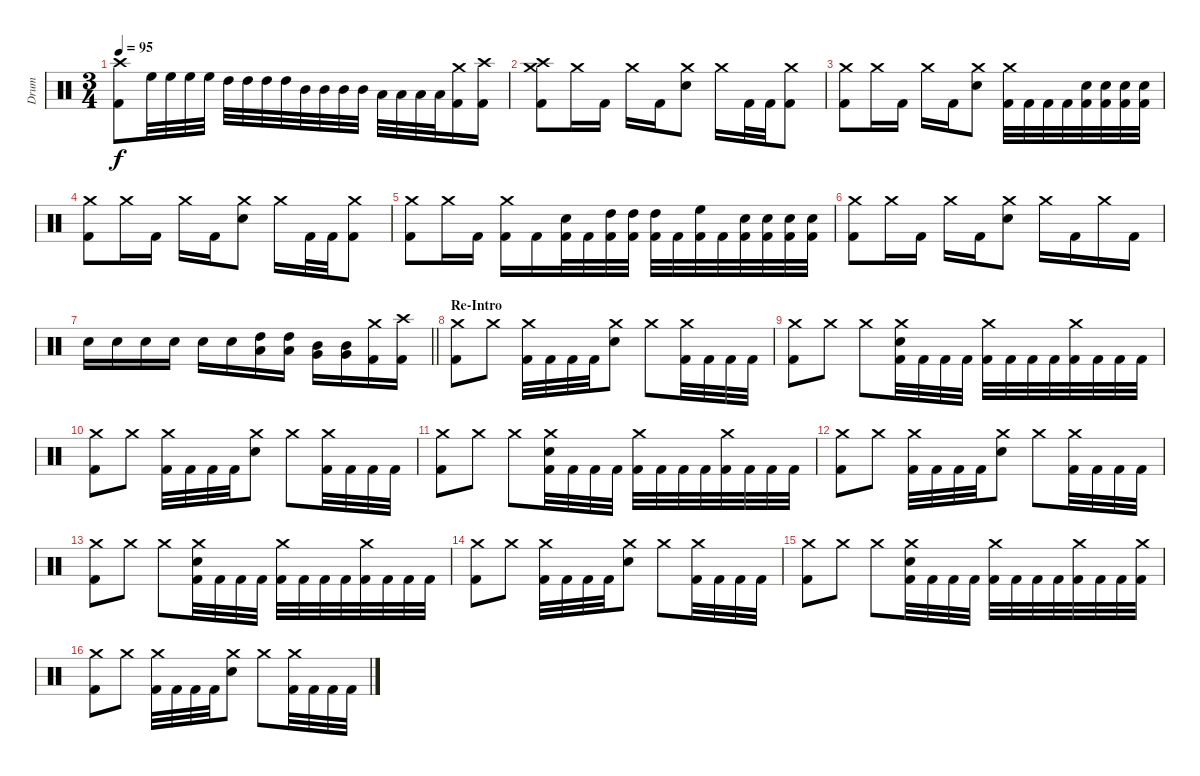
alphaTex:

\track ("Drum" "Drum") {instrument percussion}
\staff {score}
\articulation defaults
\ts (3 4)
\tempo 95
\clef neutral
\ks c
("Crash high (hit)" "Kick (hit) 2").8{dy f} "High Floor Tom (hit)".32 "High Floor Tom (hit)".32 "High Floor Tom (hit)".32 "High Floor Tom (hit)".32 "High Tom (hit)".32 "High Tom (hit)".32 "High Tom (hit)".32 "High Tom (hit)".32 "Mid Tom (hit)".32 "Mid Tom (hit)".32 "Mid Tom (hit)".32 "Mid Tom (hit)".32 "Low Tom (hit)".32 "Low Tom (hit)".32 "Low Tom (hit)".32 "Low Tom (hit)".32 ("Crash medium (hit)" "Kick (hit) 2").16 ("Crash high (hit)" "Kick (hit) 2").16 |
("Crash medium (hit)" "Crash high (hit)" "Kick (hit) 2").8 "Crash medium (hit)".16 "Kick (hit) 2".16 "Crash medium (hit)".16 "Kick (hit) 2".16 ("Crash medium (hit)" "Electric Snare (hit)").8 "Crash medium (hit)".16 "Kick (hit) 2".32 "Kick (hit) 2".32 ("Crash medium (hit)" "Kick (hit) 2").8 |
("Crash medium (hit)" "Kick (hit) 2").8 "Crash medium (hit)".16 "Kick (hit) 2".16 "Crash medium (hit)".16 "Kick (hit) 2".16 ("Crash medium (hit)" "Electric Snare (hit)").8 ("Crash medium (hit)" "Kick (hit) 2").32 "Kick (hit) 2".32 "Kick (hit) 2".32 "Kick (hit) 2".32 ("Electric Snare (hit)" "Kick (hit) 2").32 ("Electric Snare (hit)" "Kick (hit) 2").32 ("Electric Snare (hit)" "Kick (hit) 2").32 ("Electric Snare (hit)" "Kick (hit) 2").32 |
("Crash medium (hit)" "Kick (hit) 2").8 "Crash medium (hit)".16 "Kick (hit) 2".16 "Crash medium (hit)".16 "Kick (hit) 2".16 ("Crash medium (hit)" "Electric Snare (hit)").8 "Crash medium (hit)".16 "Kick (hit) 2".32 "Kick (hit) 2".32 ("Crash medium (hit)" "Kick (hit) 2").8 |
("Crash medium (hit)" "Kick (hit) 2").8 "Crash medium (hit)".16 "Kick (hit) 2".16 ("Crash medium (hit)" "Kick (hit) 2").16 "Kick (hit) 2".16 ("Electric Snare (hit)" "Kick (hit) 2").32 "Kick (hit) 2".32 ("High Tom (hit)" "Kick (hit) 2").32 ("High Tom (hit)" "Kick (hit) 2").32 ("High Tom (hit)" "Kick (hit) 2").32 "Kick (hit) 2".32 ("High Floor Tom (hit)" "Kick (hit) 2").32 "Kick (hit) 2".32 ("Electric Snare (hit)" "Kick (hit) 2").32 ("Electric Snare (hit)" "Kick (hit) 2").32 ("Electric Snare (hit)" "Kick (hit) 2").32 ("Electric Snare (hit)" "Kick (hit) 2").32 |
("Crash medium (hit)" "Kick (hit) 2").8 "Crash medium (hit)".16 "Kick (hit) 2".16 "Crash medium (hit)".16 "Kick (hit) 2".16 ("Crash medium (hit)" "Electric Snare (hit)").8 "Crash medium (hit)".16 "Kick (hit) 2".16 "Crash medium (hit)".16 "Kick (hit) 2".16 |
\barLineRight lightlight "Electric Snare (hit)".16 "Electric Snare (hit)".16 "Electric Snare (hit)".16 "Electric Snare (hit)".16 "Electric Snare (hit)".16 "Electric Snare (hit)".16
("High Tom (hit)" "Low Tom (hit)").16 ("High Tom (hit)" "Low Tom (hit)").16 ("Mid Tom (hit)" "Very Low Tom (hit)").16 ("Mid Tom (hit)" "Very Low Tom (hit)").16 ("Crash medium (hit)" "Kick (hit) 2").16 ("Crash high (hit)" "Kick (hit) 2").16 |
\section ("" "Re-Intro")
("Crash medium (hit)" "Kick (hit) 2").8 "Crash medium (hit)".8 ("Crash medium (hit)" "Kick (hit) 2").32 "Kick (hit) 2".32 "Kick (hit) 2".32 "Kick (hit) 2".32 ("Crash medium (hit)" "Electric Snare (hit)").8 "Crash medium (hit)".8 ("Crash medium (hit)" "Kick (hit) 2").32 "Kick (hit) 2".32 "Kick (hit) 2".32 "Kick (hit) 2".32 |
("Crash medium (hit)" "Kick (hit) 2").8 "Crash medium (hit)".8 "Crash medium (hit)".8 ("Crash medium (hit)" "Electric Snare (hit)" "Kick (hit) 2").32 "Kick (hit) 2".32 "Kick (hit) 2".32 "Kick (hit) 2".32 ("Crash medium (hit)" "Kick (hit) 2").32 "Kick (hit) 2".32 "Kick (hit) 2".32 "Kick (hit) 2".32 ("Crash medium (hit)" "Kick (hit) 2").32 "Kick (hit) 2".32 "Kick (hit) 2".32 "Kick (hit) 2".32 |
("Crash medium (hit)" "Kick (hit) 2").8 "Crash medium (hit)".8 ("Crash medium (hit)" "Kick (hit) 2").32 "Kick (hit) 2".32 "Kick (hit) 2".32 "Kick (hit) 2".32 ("Crash medium (hit)" "Electric Snare (hit)").8 "Crash medium (hit)".8 ("Crash medium (hit)" "Kick (hit) 2").32 "Kick (hit) 2".32 "Kick (hit) 2".32 "Kick (hit) 2".32 |
("Crash medium (hit)" "Kick (hit) 2").8 "Crash medium (hit)".8 "Crash medium (hit)".8 ("Crash medium (hit)" "Electric Snare (hit)" "Kick (hit) 2").32 "Kick (hit) 2".32 "Kick (hit) 2".32 "Kick (hit) 2".32 ("Crash medium (hit)" "Kick (hit) 2").32 "Kick (hit) 2".32 "Kick (hit) 2".32 "Kick (hit) 2".32 ("Crash medium (hit)" "Kick (hit) 2").32 "Kick (hit) 2".32 "Kick (hit) 2".32 "Kick (hit) 2".32 |
("Crash medium (hit)" "Kick (hit) 2").8 "Crash medium (hit)".8 ("Crash medium (hit)" "Kick (hit) 2").32 "Kick (hit) 2".32 "Kick (hit) 2".32 "Kick (hit) 2".32 ("Crash medium (hit)" "Electric Snare (hit)").8 "Crash medium (hit)".8 ("Crash medium (hit)" "Kick (hit) 2").32 "Kick (hit) 2".32 "Kick (hit) 2".32 "Kick (hit) 2".32 |
("Crash medium (hit)" "Kick (hit) 2").8 "Crash medium (hit)".8 "Crash medium (hit)".8 ("Crash medium (hit)" "Electric Snare (hit)" "Kick (hit) 2").32 "Kick (hit) 2".32 "Kick (hit) 2".32 "Kick (hit) 2".32 ("Crash medium (hit)" "Kick (hit) 2").32 "Kick (hit) 2".32 "Kick (hit) 2".32 "Kick (hit) 2".32 ("Crash medium (hit)" "Kick (hit) 2").32 "Kick (hit) 2".32 "Kick (hit) 2".32 "Kick (hit) 2".32 |
("Crash medium (hit)" "Kick (hit) 2").8 "Crash medium (hit)".8 ("Crash medium (hit)" "Kick (hit) 2").32 "Kick (hit) 2".32 "Kick (hit) 2".32 "Kick (hit) 2".32 ("Crash medium (hit)" "Electric Snare (hit)").8 "Crash medium (hit)".8 ("Crash medium (hit)" "Kick (hit) 2").32 "Kick (hit) 2".32 "Kick (hit) 2".32 "Kick (hit) 2".32 |
("Crash medium (hit)" "Kick (hit) 2").8 "Crash medium (hit)".8 "Crash medium (hit)".8 ("Crash medium (hit)" "Electric Snare (hit)" "Kick (hit) 2").32 "Kick (hit) 2".32 "Kick (hit) 2".32 "Kick (hit) 2".32 ("Crash medium (hit)" "Kick (hit) 2").32 "Kick (hit) 2".32 "Kick (hit) 2".32 "Kick (hit) 2".32 ("Crash medium (hit)" "Kick (hit) 2").32 "Kick (hit) 2".32 "Kick (hit) 2".32 ("Crash medium (hit)" "Kick (hit) 2").32 |
("Crash medium (hit)" "Kick (hit) 2").8 "Crash medium (hit)".8 ("Crash medium (hit)" "Kick (hit) 2").32 "Kick (hit) 2".32 "Kick (hit) 2".32 "Kick (hit) 2".32 ("Crash medium (hit)" "Electric Snare (hit)").8 "Crash medium (hit)".8 ("Crash medium (hit)" "Kick (hit) 2").32 "Kick (hit) 2".32 "Kick (hit) 2".32 "Kick (hit) 2".32
